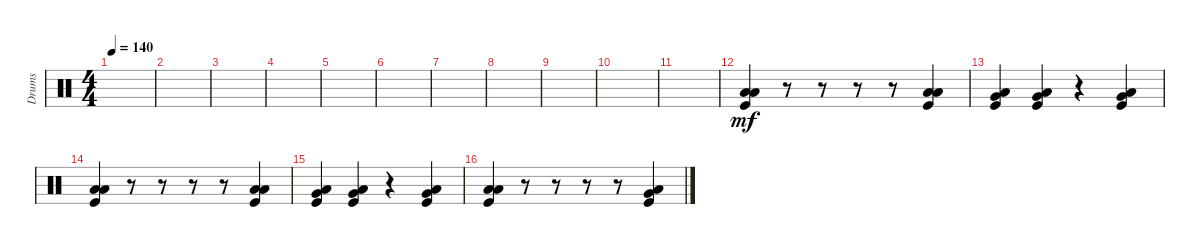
\track ("Drums" "Drums") {instrument percussion}
\staff {score}
\articulation defaults
\ts (4 4)
\tempo 140
\clef neutral
\ks c
|
|
|
|
|
|
|
|
|
|
|
("Low Floor Tom (hit)" "Low Tom (hit)" "Kick (hit)").4{dy mf} r.8 r.8 r.8 r.8 ("Low Tom (hit)" "Low Floor Tom (hit)" "Kick (hit)").4 |
("Very Low Tom (hit)" "Low Floor Tom (hit)" "Kick (hit)").4 ("Very Low Tom (hit)" "Low Floor Tom (hit)" "Kick (hit)").4 r.4 ("Very Low Tom (hit)" "Low Floor Tom (hit)" "Kick (hit)").4 |
("Low Floor Tom (hit)" "Low Tom (hit)" "Kick (hit)").4 r.8 r.8 r.8 r.8 ("Low Tom (hit)" "Low Floor Tom (hit)" "Kick (hit)").4 |
("Very Low Tom (hit)" "Low Floor Tom (hit)" "Kick (hit)").4 ("Very Low Tom (hit)" "Low Floor Tom (hit)" "Kick (hit)").4 r.4 ("Very Low Tom (hit)" "Low Floor Tom (hit)" "Kick (hit)").4 |
("Low Floor Tom (hit)" "Low Tom (hit)" "Kick (hit)").4 r.8 r.8 r.8 r.8 ("Low Floor Tom (hit)" "Very Low Tom (hit)" "Kick (hit)").4
